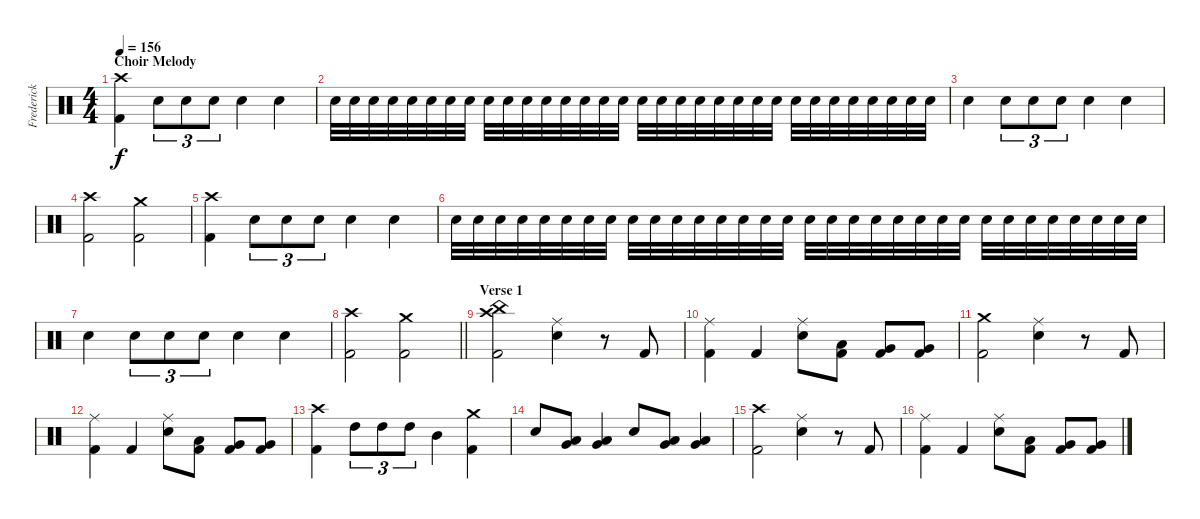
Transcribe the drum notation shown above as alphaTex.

\track ("Frederick Ehmke" "Frederick ") {instrument percussion}
\staff {score}
\articulation defaults
\ts (4 4)
\section ("" "Choir Melody")
\tempo 156
\clef neutral
\ks c
("Crash high (hit)" "Kick (hit) 2").4{dy f volume 13} "Electric Snare (hit)".8{tu (3 2)} "Electric Snare (hit)".8{tu (3 2)} "Electric Snare (hit)".8{tu (3 2)} "Electric Snare (hit)".4 "Electric Snare (hit)".4 |
"Electric Snare (hit)".32{volume 8} "Electric Snare (hit)".32 "Electric Snare (hit)".32 "Electric Snare (hit)".32 "Electric Snare (hit)".32 "Electric Snare (hit)".32 "Electric Snare (hit)".32 "Electric Snare (hit)".32 "Electric Snare (hit)".32 "Electric Snare (hit)".32 "Electric Snare (hit)".32 "Electric Snare (hit)".32 "Electric Snare (hit)".32 "Electric Snare (hit)".32 "Electric Snare (hit)".32 "Electric Snare (hit)".32 "Electric Snare (hit)".32 "Electric Snare (hit)".32 "Electric Snare (hit)".32 "Electric Snare (hit)".32 "Electric Snare (hit)".32 "Electric Snare (hit)".32 "Electric Snare (hit)".32 "Electric Snare (hit)".32 "Electric Snare (hit)".32 "Electric Snare (hit)".32 "Electric Snare (hit)".32 "Electric Snare (hit)".32 "Electric Snare (hit)".32 "Electric Snare (hit)".32 "Electric Snare (hit)".32 "Electric Snare (hit)".32 |
"Electric Snare (hit)".4{volume 13} "Electric Snare (hit)".8{tu (3 2)} "Electric Snare (hit)".8{tu (3 2)} "Electric Snare (hit)".8{tu (3 2)} "Electric Snare (hit)".4 "Electric Snare (hit)".4 |
("Crash high (hit)" "Kick (hit) 2").2 ("Crash medium (hit)" "Kick (hit) 2").2 |
("Crash high (hit)" "Kick (hit) 2").4{volume 13} "Electric Snare (hit)".8{tu (3 2)} "Electric Snare (hit)".8{tu (3 2)} "Electric Snare (hit)".8{tu (3 2)} "Electric Snare (hit)".4 "Electric Snare (hit)".4 |
"Electric Snare (hit)".32{volume 8} "Electric Snare (hit)".32 "Electric Snare (hit)".32 "Electric Snare (hit)".32 "Electric Snare (hit)".32 "Electric Snare (hit)".32 "Electric Snare (hit)".32 "Electric Snare (hit)".32 "Electric Snare (hit)".32 "Electric Snare (hit)".32 "Electric Snare (hit)".32 "Electric Snare (hit)".32 "Electric Snare (hit)".32 "Electric Snare (hit)".32 "Electric Snare (hit)".32 "Electric Snare (hit)".32 "Electric Snare (hit)".32 "Electric Snare (hit)".32 "Electric Snare (hit)".32 "Electric Snare (hit)".32 "Electric Snare (hit)".32 "Electric Snare (hit)".32 "Electric Snare (hit)".32 "Electric Snare (hit)".32 "Electric Snare (hit)".32 "Electric Snare (hit)".32 "Electric Snare (hit)".32 "Electric Snare (hit)".32 "Electric Snare (hit)".32 "Electric Snare (hit)".32 "Electric Snare (hit)".32 "Electric Snare (hit)".32 |
"Electric Snare (hit)".4{volume 13} "Electric Snare (hit)".8{tu (3 2)} "Electric Snare (hit)".8{tu (3 2)} "Electric Snare (hit)".8{tu (3 2)} "Electric Snare (hit)".4 "Electric Snare (hit)".4 |
\barLineRight lightlight
("Crash high (hit)" "Kick (hit) 2").2 ("Crash medium (hit)" "Kick (hit) 2").2 |
\section ("" "Verse 1")
("China (hit)" "Kick (hit) 2" "Crash high (hit)").2 ("Ride (middle)" "Electric Snare (hit)").4 r.8 "Kick (hit) 2".8 |
("Ride (middle)" "Kick (hit) 2").4 "Kick (hit) 2".4 ("Ride (middle)" "Electric Snare (hit)").8 ("Kick (hit) 2" "Low Tom (hit)").8 ("Kick (hit) 2" "Very Low Tom (hit)").8 ("Kick (hit) 2" "Very Low Tom (hit)").8 |
("Crash medium (hit)" "Kick (hit) 2").2 ("Ride (middle)" "Electric Snare (hit)").4 r.8 "Kick (hit) 2".8 |
("Ride (middle)" "Kick (hit) 2").4 "Kick (hit) 2".4 ("Ride (middle)" "Electric Snare (hit)").8 ("Kick (hit) 2" "Low Tom (hit)").8 ("Kick (hit) 2" "Very Low Tom (hit)").8 ("Kick (hit) 2" "Very Low Tom (hit)").8 |
("Crash high (hit)" "Kick (hit) 2").4 "High Tom (hit)".8{tu (3 2)} "High Tom (hit)".8{tu (3 2)} "High Tom (hit)".8{tu (3 2)} "Mid Tom (hit)".4 ("Crash medium (hit)" "Kick (hit) 2").4 |
"Electric Snare (hit)".8 ("Very Low Tom (hit)" "Low Tom (hit)").8 ("Very Low Tom (hit)" "Low Tom (hit)").4 "Electric Snare (hit)".8 ("Very Low Tom (hit)" "Low Floor Tom (hit)").8 ("Very Low Tom (hit)" "Low Floor Tom (hit)").4 |
("Kick (hit) 2" "Crash high (hit)").2 ("Ride (middle)" "Electric Snare (hit)").4 r.8 "Kick (hit) 2".8 |
("Ride (middle)" "Kick (hit) 2").4 "Kick (hit) 2".4 ("Ride (middle)" "Electric Snare (hit)").8 ("Kick (hit) 2" "Low Tom (hit)").8 ("Kick (hit) 2" "Very Low Tom (hit)").8 ("Kick (hit) 2" "Very Low Tom (hit)").8
